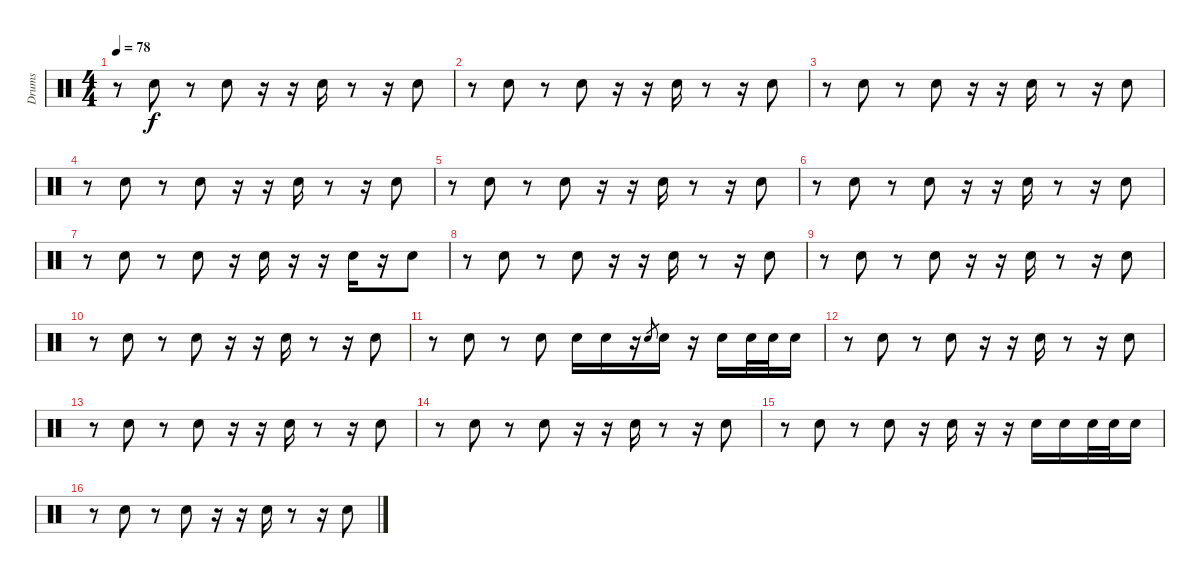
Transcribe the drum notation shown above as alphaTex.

\track ("Drums" "Drums") {instrument percussion}
\staff {score}
\articulation defaults
\ts (4 4)
\tempo 78
\clef neutral
\ks c
r.8{dy f} "Snare (hit) 2".8 r.8 "Snare (hit) 2".8 r.16 r.16 "Snare (hit) 2".16 r.8 r.16 "Snare (hit) 2".8 |
r.8 "Snare (hit) 2".8 r.8 "Snare (hit) 2".8 r.16 r.16 "Snare (hit) 2".16 r.8 r.16 "Snare (hit) 2".8 |
r.8 "Snare (hit) 2".8 r.8 "Snare (hit) 2".8 r.16 r.16 "Snare (hit) 2".16 r.8 r.16 "Snare (hit) 2".8 |
r.8 "Snare (hit) 2".8 r.8 "Snare (hit) 2".8 r.16 r.16 "Snare (hit) 2".16 r.8 r.16 "Snare (hit) 2".8 |
r.8 "Snare (hit) 2".8 r.8 "Snare (hit) 2".8 r.16 r.16 "Snare (hit) 2".16 r.8 r.16 "Snare (hit) 2".8 |
r.8 "Snare (hit) 2".8 r.8 "Snare (hit) 2".8 r.16 r.16 "Snare (hit) 2".16 r.8 r.16 "Snare (hit) 2".8 |
r.8 "Snare (hit) 2".8 r.8 "Snare (hit) 2".8 r.16 "Snare (hit) 2".16 r.16 r.16 "Snare (hit) 2".16 r.16 "Snare (hit) 2".8 |
r.8 "Snare (hit) 2".8 r.8 "Snare (hit) 2".8 r.16 r.16 "Snare (hit) 2".16 r.8 r.16 "Snare (hit) 2".8 |
r.8 "Snare (hit) 2".8 r.8 "Snare (hit) 2".8 r.16 r.16 "Snare (hit) 2".16 r.8 r.16 "Snare (hit) 2".8 |
r.8 "Snare (hit) 2".8 r.8 "Snare (hit) 2".8 r.16 r.16 "Snare (hit) 2".16 r.8 r.16 "Snare (hit) 2".8 |
r.8 "Snare (hit) 2".8 r.8 "Snare (hit) 2".8 "Snare (hit) 2".16 "Snare (hit) 2".16 r.16 "Snare (hit) 2".8{gr} "Snare (hit) 2".16 r.16 "Snare (hit) 2".16 "Snare (hit) 2".32 "Snare (hit) 2".32 "Snare (hit) 2".16 |
r.8 "Snare (hit) 2".8 r.8 "Snare (hit) 2".8 r.16 r.16 "Snare (hit) 2".16 r.8 r.16 "Snare (hit) 2".8 |
r.8 "Snare (hit) 2".8 r.8 "Snare (hit) 2".8 r.16 r.16 "Snare (hit) 2".16 r.8 r.16 "Snare (hit) 2".8 |
r.8 "Snare (hit) 2".8 r.8 "Snare (hit) 2".8 r.16 r.16 "Snare (hit) 2".16 r.8 r.16 "Snare (hit) 2".8 |
r.8 "Snare (hit) 2".8 r.8 "Snare (hit) 2".8 r.16 "Snare (hit) 2".16 r.16 r.16 "Snare (hit) 2".16 "Snare (hit) 2".16 "Snare (hit) 2".32 "Snare (hit) 2".32 "Snare (hit) 2".16 |
r.8 "Snare (hit) 2".8 r.8 "Snare (hit) 2".8 r.16 r.16 "Snare (hit) 2".16 r.8 r.16 "Snare (hit) 2".8
